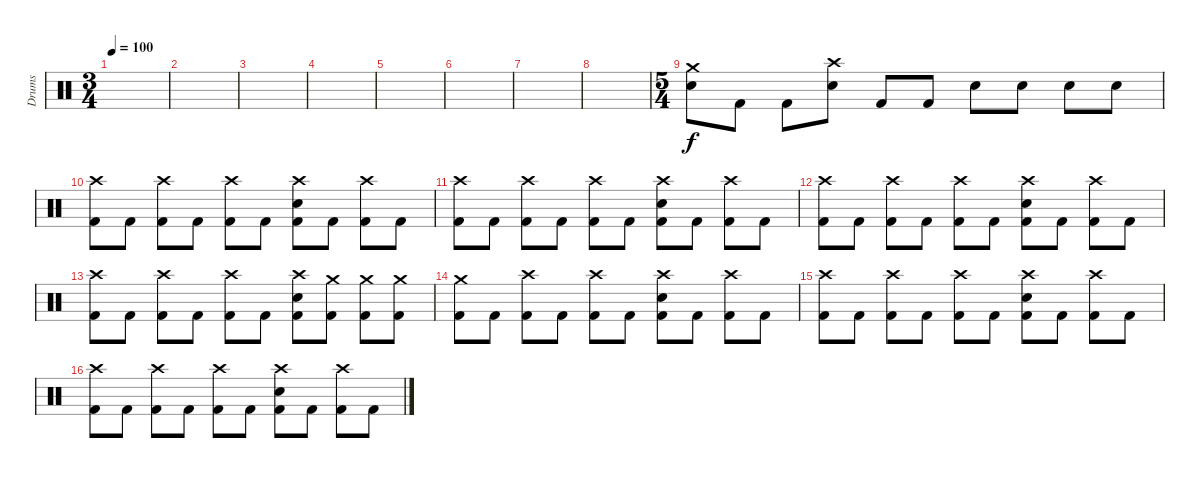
\track ("Drums" "Drums") {instrument percussion}
\staff {score}
\articulation defaults
\ts (3 4)
\tempo 100
\clef neutral
\ks c
|
|
|
|
|
|
|
|
\ts (5 4)
("Crash medium (hit)" "Snare (hit) 2").8 "Kick (hit) 2".8 "Kick (hit) 2".8 ("Crash high (hit)" "Snare (hit) 2").8 "Kick (hit) 2".8 "Kick (hit) 2".8 "Snare (hit) 2".8 "Snare (hit) 2".8 "Snare (hit) 2".8 "Snare (hit) 2".8 |
("Crash high (hit)" "Kick (hit) 2").8 "Kick (hit) 2".8 ("Crash high (hit)" "Kick (hit) 2").8 "Kick (hit) 2".8 ("Crash high (hit)" "Kick (hit) 2").8 "Kick (hit) 2".8 ("Crash high (hit)" "Snare (hit) 2" "Kick (hit) 2").8 "Kick (hit) 2".8 ("Crash high (hit)" "Kick (hit) 2").8 "Kick (hit) 2".8 |
("Crash high (hit)" "Kick (hit) 2").8 "Kick (hit) 2".8 ("Crash high (hit)" "Kick (hit) 2").8 "Kick (hit) 2".8 ("Crash high (hit)" "Kick (hit) 2").8 "Kick (hit) 2".8 ("Crash high (hit)" "Snare (hit) 2" "Kick (hit) 2").8 "Kick (hit) 2".8 ("Crash high (hit)" "Kick (hit) 2").8 "Kick (hit) 2".8 |
("Crash high (hit)" "Kick (hit) 2").8 "Kick (hit) 2".8 ("Crash high (hit)" "Kick (hit) 2").8 "Kick (hit) 2".8 ("Crash high (hit)" "Kick (hit) 2").8 "Kick (hit) 2".8 ("Crash high (hit)" "Snare (hit) 2" "Kick (hit) 2").8 "Kick (hit) 2".8 ("Crash high (hit)" "Kick (hit) 2").8 "Kick (hit) 2".8 |
("Crash high (hit)" "Kick (hit) 2").8 "Kick (hit) 2".8 ("Crash high (hit)" "Kick (hit) 2").8 "Kick (hit) 2".8 ("Crash high (hit)" "Kick (hit) 2").8 "Kick (hit) 2".8 ("Crash high (hit)" "Snare (hit) 2" "Kick (hit) 2").8 ("Crash medium (hit)" "Kick (hit) 2").8 ("Crash medium (hit)" "Kick (hit) 2").8 ("Crash medium (hit)" "Kick (hit) 2").8 |
("Crash medium (hit)" "Kick (hit) 2").8 "Kick (hit) 2".8 ("Crash high (hit)" "Kick (hit) 2").8 "Kick (hit) 2".8 ("Crash high (hit)" "Kick (hit) 2").8 "Kick (hit) 2".8 ("Crash high (hit)" "Snare (hit) 2" "Kick (hit) 2").8 "Kick (hit) 2".8 ("Crash high (hit)" "Kick (hit) 2").8 "Kick (hit) 2".8 |
("Crash high (hit)" "Kick (hit) 2").8 "Kick (hit) 2".8 ("Crash high (hit)" "Kick (hit) 2").8 "Kick (hit) 2".8 ("Crash high (hit)" "Kick (hit) 2").8 "Kick (hit) 2".8 ("Crash high (hit)" "Snare (hit) 2" "Kick (hit) 2").8 "Kick (hit) 2".8 ("Crash high (hit)" "Kick (hit) 2").8 "Kick (hit) 2".8 |
("Crash high (hit)" "Kick (hit) 2").8 "Kick (hit) 2".8 ("Crash high (hit)" "Kick (hit) 2").8 "Kick (hit) 2".8 ("Crash high (hit)" "Kick (hit) 2").8 "Kick (hit) 2".8 ("Crash high (hit)" "Snare (hit) 2" "Kick (hit) 2").8 "Kick (hit) 2".8 ("Crash high (hit)" "Kick (hit) 2").8 "Kick (hit) 2".8
